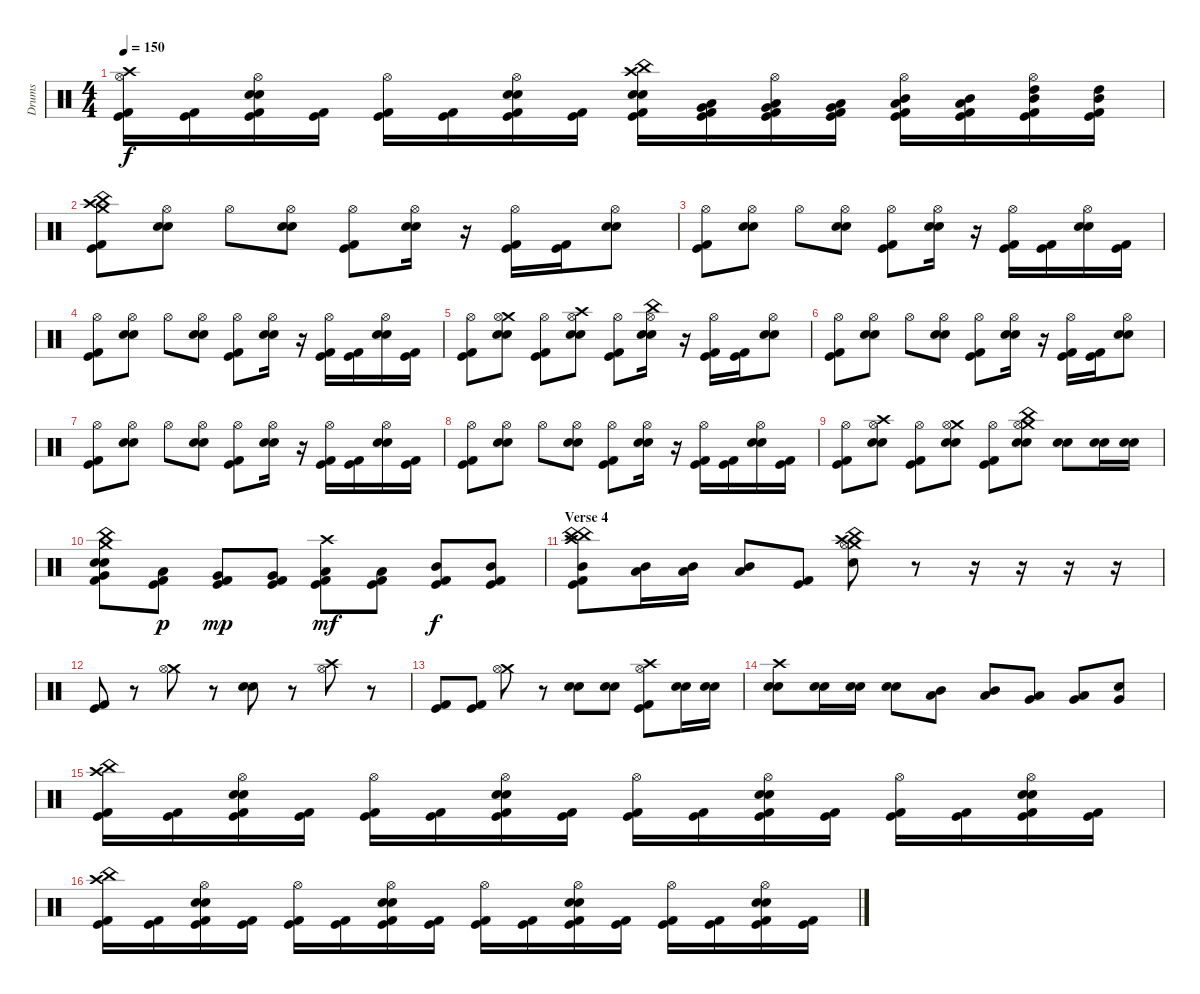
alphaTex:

\track ("Drums" "Drums") {instrument percussion}
\staff {score}
\articulation defaults
\ts (4 4)
\tempo 150
\clef neutral
\ks c
("Crash high (hit)" "Hi-Hat (open)" "Kick (hit) 2" "Kick (hit)").16{dy f} ("Kick (hit) 2" "Kick (hit)").16 ("Hi-Hat (open)" "Electric Snare (hit)" "Snare (hit) 2" "Kick (hit)" "Kick (hit) 2").16 ("Kick (hit) 2" "Kick (hit)").16 ("Hi-Hat (open)" "Kick (hit) 2" "Kick (hit)").16 ("Kick (hit) 2" "Kick (hit)").16 ("Hi-Hat (open)" "Electric Snare (hit)" "Snare (hit) 2" "Kick (hit) 2" "Kick (hit)").16 ("Kick (hit) 2" "Kick (hit)").16 ("China (hit)" "Crash high (hit)" "Electric Snare (hit)" "Snare (hit) 2" "Kick (hit) 2" "Kick (hit)").16 ("Low Floor Tom (hit)" "Very Low Tom (hit)" "Kick (hit) 2" "Kick (hit)").16 ("Hi-Hat (open)" "Very Low Tom (hit)" "Low Tom (hit)" "Kick (hit) 2" "Kick (hit)").16 ("Very Low Tom (hit)" "Low Tom (hit)" "Kick (hit) 2" "Kick (hit)").16 ("Hi-Hat (open)" "Low Tom (hit)" "Mid Tom (hit)" "Kick (hit) 2" "Kick (hit)").16 ("Low Tom (hit)" "Mid Tom (hit)" "Kick (hit) 2" "Kick (hit)").16 ("Hi-Hat (open)" "Mid Tom (hit)" "High Tom (hit)" "Kick (hit) 2" "Kick (hit)").16 ("Mid Tom (hit)" "High Tom (hit)" "Kick (hit) 2" "Kick (hit)").16 |
("Crash high (hit)" "Crash medium (hit)" "China (hit)" "Kick (hit) 2" "Kick (hit)").8 ("Hi-Hat (open)" "Snare (hit) 2" "Electric Snare (hit)").8 "Hi-Hat (open)".8 ("Hi-Hat (open)" "Electric Snare (hit)" "Snare (hit) 2").8 ("Hi-Hat (open)" "Kick (hit)" "Kick (hit) 2").8 ("Hi-Hat (open)" "Electric Snare (hit)" "Snare (hit) 2").16 r.16 ("Hi-Hat (open)" "Kick (hit) 2" "Kick (hit)").16 ("Kick (hit)" "Kick (hit) 2").16 ("Hi-Hat (open)" "Electric Snare (hit)" "Snare (hit) 2").8 |
("Hi-Hat (open)" "Kick (hit) 2" "Kick (hit)").8 ("Hi-Hat (open)" "Snare (hit) 2" "Electric Snare (hit)").8 "Hi-Hat (open)".8 ("Hi-Hat (open)" "Electric Snare (hit)" "Snare (hit) 2").8 ("Hi-Hat (open)" "Kick (hit)" "Kick (hit) 2").8 ("Hi-Hat (open)" "Electric Snare (hit)" "Snare (hit) 2").16 r.16 ("Hi-Hat (open)" "Kick (hit) 2" "Kick (hit)").16 ("Kick (hit)" "Kick (hit) 2").16 ("Hi-Hat (open)" "Electric Snare (hit)" "Snare (hit) 2").16 ("Kick (hit) 2" "Kick (hit)").16 |
("Hi-Hat (open)" "Kick (hit) 2" "Kick (hit)").8 ("Hi-Hat (open)" "Snare (hit) 2" "Electric Snare (hit)").8 "Hi-Hat (open)".8 ("Hi-Hat (open)" "Electric Snare (hit)" "Snare (hit) 2").8 ("Hi-Hat (open)" "Kick (hit)" "Kick (hit) 2").8 ("Hi-Hat (open)" "Electric Snare (hit)" "Snare (hit) 2").16 r.16 ("Hi-Hat (open)" "Kick (hit) 2" "Kick (hit)").16 ("Kick (hit)" "Kick (hit) 2").16 ("Hi-Hat (open)" "Electric Snare (hit)" "Snare (hit) 2").16 ("Kick (hit)" "Kick (hit) 2").16 |
("Hi-Hat (open)" "Kick (hit) 2" "Kick (hit)").8 ("Crash medium (hit)" "Hi-Hat (open)" "Snare (hit) 2" "Electric Snare (hit)").8 ("Hi-Hat (open)" "Kick (hit) 2" "Kick (hit)").8 ("Crash high (hit)" "Hi-Hat (open)" "Electric Snare (hit)" "Snare (hit) 2").8 ("Hi-Hat (open)" "Kick (hit)" "Kick (hit) 2").8 ("China (hit)" "Hi-Hat (open)" "Electric Snare (hit)" "Snare (hit) 2").16 r.16 ("Hi-Hat (open)" "Kick (hit) 2" "Kick (hit)").16 ("Kick (hit)" "Kick (hit) 2").16 ("Hi-Hat (open)" "Electric Snare (hit)" "Snare (hit) 2").8 |
("Hi-Hat (open)" "Kick (hit) 2" "Kick (hit)").8 ("Hi-Hat (open)" "Snare (hit) 2" "Electric Snare (hit)").8 "Hi-Hat (open)".8 ("Hi-Hat (open)" "Electric Snare (hit)" "Snare (hit) 2").8 ("Hi-Hat (open)" "Kick (hit)" "Kick (hit) 2").8 ("Hi-Hat (open)" "Electric Snare (hit)" "Snare (hit) 2").16 r.16 ("Hi-Hat (open)" "Kick (hit) 2" "Kick (hit)").16 ("Kick (hit)" "Kick (hit) 2").16 ("Hi-Hat (open)" "Electric Snare (hit)" "Snare (hit) 2").8 |
("Hi-Hat (open)" "Kick (hit) 2" "Kick (hit)").8 ("Hi-Hat (open)" "Snare (hit) 2" "Electric Snare (hit)").8 "Hi-Hat (open)".8 ("Hi-Hat (open)" "Electric Snare (hit)" "Snare (hit) 2").8 ("Hi-Hat (open)" "Kick (hit)" "Kick (hit) 2").8 ("Hi-Hat (open)" "Electric Snare (hit)" "Snare (hit) 2").16 r.16 ("Hi-Hat (open)" "Kick (hit) 2" "Kick (hit)").16 ("Kick (hit)" "Kick (hit) 2").16 ("Hi-Hat (open)" "Electric Snare (hit)" "Snare (hit) 2").16 ("Kick (hit) 2" "Kick (hit)").16 |
("Hi-Hat (open)" "Kick (hit) 2" "Kick (hit)").8 ("Hi-Hat (open)" "Snare (hit) 2" "Electric Snare (hit)").8 "Hi-Hat (open)".8 ("Hi-Hat (open)" "Electric Snare (hit)" "Snare (hit) 2").8 ("Hi-Hat (open)" "Kick (hit)" "Kick (hit) 2").8 ("Hi-Hat (open)" "Electric Snare (hit)" "Snare (hit) 2").16 r.16 ("Hi-Hat (open)" "Kick (hit) 2" "Kick (hit)").16 ("Kick (hit)" "Kick (hit) 2").16 ("Hi-Hat (open)" "Electric Snare (hit)" "Snare (hit) 2").16 ("Kick (hit)" "Kick (hit) 2").16 |
("Hi-Hat (open)" "Kick (hit) 2" "Kick (hit)").8 ("Crash high (hit)" "Hi-Hat (open)" "Snare (hit) 2" "Electric Snare (hit)").8 ("Hi-Hat (open)" "Kick (hit) 2" "Kick (hit)").8 ("Crash medium (hit)" "Hi-Hat (open)" "Electric Snare (hit)" "Snare (hit) 2").8 ("Hi-Hat (open)" "Kick (hit) 2" "Kick (hit)").8 ("Crash medium (hit)" "Hi-Hat (open)" "Electric Snare (hit)" "Snare (hit) 2" "China (hit)").8 ("Electric Snare (hit)" "Snare (hit) 2").8 ("Electric Snare (hit)" "Snare (hit) 2").16 ("Electric Snare (hit)" "Snare (hit) 2").16 |
("Crash medium (hit)" "China (hit)" "Snare (hit) 2" "Electric Snare (hit)" "Very Low Tom (hit)" "Kick (hit) 2").8 ("Low Floor Tom (hit)" "Kick (hit)" "Kick (hit) 2").8{dy p} ("Very Low Tom (hit)" "Kick (hit)" "Kick (hit) 2").8{dy mp} ("Very Low Tom (hit)" "Kick (hit)" "Kick (hit) 2").8 ("Crash high (hit)" "Low Tom (hit)" "Kick (hit)" "Kick (hit) 2").8{dy mf} ("Low Tom (hit)" "Kick (hit)" "Kick (hit) 2").8 ("Mid Tom (hit)" "Kick (hit)" "Kick (hit) 2").8{dy f} ("Mid Tom (hit)" "Kick (hit)" "Kick (hit) 2").8 |
\section ("" "Verse 4")
("China (hit)" "Mid Tom (hit)" "Crash high (hit)" "Kick (hit) 2" "China (hit)" "Kick (hit)").8 ("Low Tom (hit)" "Mid Tom (hit)").16 ("Mid Tom (hit)" "Low Tom (hit)").16 ("Mid Tom (hit)" "Low Tom (hit)").8 ("Kick (hit) 2" "Kick (hit)").8 ("Crash medium (hit)" "Crash high (hit)" "China (hit)" "Electric Snare (hit)" "Hi-Hat (open)").8 r.8 r.16 r.16 r.16 r.16 |
("Kick (hit) 2" "Kick (hit)").8 r.8 ("Crash medium (hit)" "Hi-Hat (open)").8 r.8 ("Snare (hit) 2" "Electric Snare (hit)").8 r.8 ("Crash high (hit)" "Hi-Hat (open)").8 r.8 |
("Kick (hit) 2" "Kick (hit)").8 ("Kick (hit) 2" "Kick (hit)").8 ("Crash medium (hit)" "Hi-Hat (open)").8 r.8 ("Snare (hit) 2" "Electric Snare (hit)").8 ("Electric Snare (hit)" "Snare (hit) 2").8 ("Crash high (hit)" "Hi-Hat (open)" "Kick (hit) 2" "Kick (hit)").8 ("Electric Snare (hit)" "Snare (hit) 2").16 ("Electric Snare (hit)" "Snare (hit) 2").16 |
("Crash high (hit)" "Electric Snare (hit)" "Snare (hit) 2").8 ("Electric Snare (hit)" "Snare (hit) 2").16 ("Electric Snare (hit)" "Snare (hit) 2").16 ("Electric Snare (hit)" "Snare (hit) 2").8 ("Low Tom (hit)" "Mid Tom (hit)").8 ("Low Tom (hit)" "Mid Tom (hit)").8 ("Very Low Tom (hit)" "Low Tom (hit)").8 ("Very Low Tom (hit)" "Low Tom (hit)").8 ("Snare (hit)" "Very Low Tom (hit)").8 |
("China (hit)" "Crash high (hit)" "Kick (hit) 2" "Kick (hit)").16 ("Kick (hit) 2" "Kick (hit)").16 ("Hi-Hat (open)" "Electric Snare (hit)" "Snare (hit) 2" "Kick (hit) 2" "Kick (hit)").16 ("Kick (hit) 2" "Kick (hit)").16 ("Hi-Hat (open)" "Kick (hit) 2" "Kick (hit)").16 ("Kick (hit) 2" "Kick (hit)").16 ("Hi-Hat (open)" "Electric Snare (hit)" "Snare (hit) 2" "Kick (hit) 2" "Kick (hit)").16 ("Kick (hit) 2" "Kick (hit)").16 ("Hi-Hat (open)" "Kick (hit) 2" "Kick (hit)").16 ("Kick (hit) 2" "Kick (hit)").16 ("Hi-Hat (open)" "Electric Snare (hit)" "Snare (hit) 2" "Kick (hit) 2" "Kick (hit)").16 ("Kick (hit) 2" "Kick (hit)").16 ("Hi-Hat (open)" "Kick (hit) 2" "Kick (hit)").16 ("Kick (hit) 2" "Kick (hit)").16 ("Hi-Hat (open)" "Electric Snare (hit)" "Snare (hit) 2" "Kick (hit) 2" "Kick (hit)").16 ("Kick (hit) 2" "Kick (hit)").16 |
("China (hit)" "Crash high (hit)" "Kick (hit) 2" "Kick (hit)").16 ("Kick (hit) 2" "Kick (hit)").16 ("Hi-Hat (open)" "Electric Snare (hit)" "Snare (hit) 2" "Kick (hit) 2" "Kick (hit)").16 ("Kick (hit) 2" "Kick (hit)").16 ("Hi-Hat (open)" "Kick (hit) 2" "Kick (hit)").16 ("Kick (hit) 2" "Kick (hit)").16 ("Hi-Hat (open)" "Electric Snare (hit)" "Snare (hit) 2" "Kick (hit) 2" "Kick (hit)").16 ("Kick (hit) 2" "Kick (hit)").16 ("Hi-Hat (open)" "Kick (hit) 2" "Kick (hit)").16 ("Kick (hit) 2" "Kick (hit)").16 ("Hi-Hat (open)" "Electric Snare (hit)" "Snare (hit) 2" "Kick (hit) 2" "Kick (hit)").16 ("Kick (hit) 2" "Kick (hit)").16 ("Hi-Hat (open)" "Kick (hit) 2" "Kick (hit)").16 ("Kick (hit) 2" "Kick (hit)").16 ("Hi-Hat (open)" "Electric Snare (hit)" "Snare (hit) 2" "Kick (hit) 2" "Kick (hit)").16 ("Kick (hit) 2" "Kick (hit)").16
